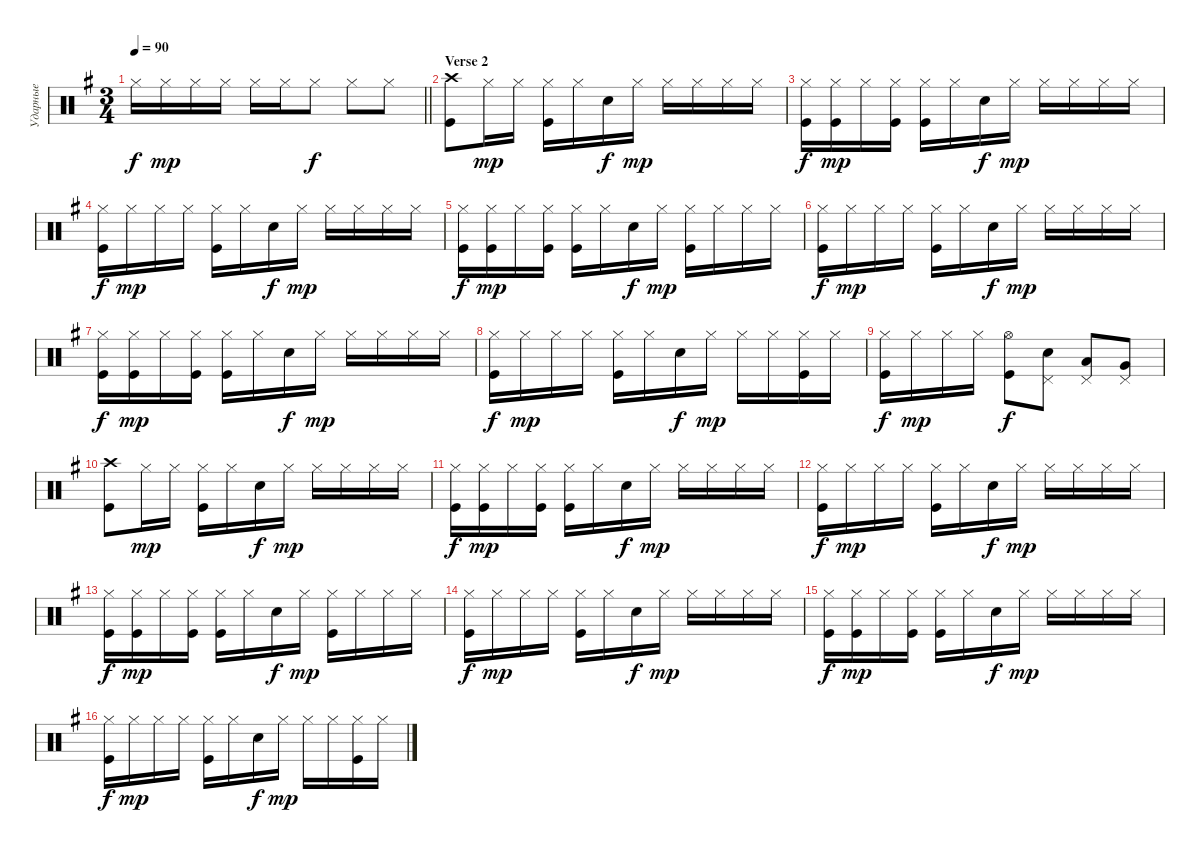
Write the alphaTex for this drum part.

\track ("Ударные" "Ударные") {instrument percussion}
\staff {score}
\articulation defaults
\ts (3 4)
\tempo 90
\clef neutral
\barLineRight lightlight
\ks eminor "Hi-Hat (closed)".16{dy f} "Hi-Hat (closed)".16{dy mp} "Hi-Hat (closed)".16 "Hi-Hat (closed)".16 "Hi-Hat (closed)".16 "Hi-Hat (closed)".16 "Hi-Hat (closed)".8{dy f} "Hi-Hat (closed)".8 "Hi-Hat (closed)".8
|
\section ("" "Verse 2")
("Crash high (hit)" "Kick (hit)").8 "Hi-Hat (closed)".16{dy mp} "Hi-Hat (closed)".16 ("Hi-Hat (closed)" "Kick (hit)").16 "Hi-Hat (closed)".16 "Snare (hit) 2".16{dy f} "Hi-Hat (closed)".16{dy mp} "Hi-Hat (closed)".16 "Hi-Hat (closed)".16 "Hi-Hat (closed)".16 "Hi-Hat (closed)".16 |
("Hi-Hat (closed)" "Kick (hit)").16{dy f} ("Hi-Hat (closed)" "Kick (hit)").16{dy mp} "Hi-Hat (closed)".16 ("Hi-Hat (closed)" "Kick (hit)").16 ("Hi-Hat (closed)" "Kick (hit)").16 "Hi-Hat (closed)".16 "Snare (hit) 2".16{dy f} "Hi-Hat (closed)".16{dy mp} "Hi-Hat (closed)".16 "Hi-Hat (closed)".16 "Hi-Hat (closed)".16 "Hi-Hat (closed)".16 |
("Hi-Hat (closed)" "Kick (hit)").16{dy f} "Hi-Hat (closed)".16{dy mp} "Hi-Hat (closed)".16 "Hi-Hat (closed)".16 ("Hi-Hat (closed)" "Kick (hit)").16 "Hi-Hat (closed)".16 "Snare (hit) 2".16{dy f} "Hi-Hat (closed)".16{dy mp} "Hi-Hat (closed)".16 "Hi-Hat (closed)".16 "Hi-Hat (closed)".16 "Hi-Hat (closed)".16 |
("Hi-Hat (closed)" "Kick (hit)").16{dy f} ("Hi-Hat (closed)" "Kick (hit)").16{dy mp} "Hi-Hat (closed)".16 ("Hi-Hat (closed)" "Kick (hit)").16 ("Hi-Hat (closed)" "Kick (hit)").16 "Hi-Hat (closed)".16 "Snare (hit) 2".16{dy f} "Hi-Hat (closed)".16{dy mp} ("Hi-Hat (closed)" "Kick (hit)").16 "Hi-Hat (closed)".16 "Hi-Hat (closed)".16 "Hi-Hat (closed)".16 |
("Hi-Hat (closed)" "Kick (hit)").16{dy f} "Hi-Hat (closed)".16{dy mp} "Hi-Hat (closed)".16 "Hi-Hat (closed)".16 ("Hi-Hat (closed)" "Kick (hit)").16 "Hi-Hat (closed)".16 "Snare (hit) 2".16{dy f} "Hi-Hat (closed)".16{dy mp} "Hi-Hat (closed)".16 "Hi-Hat (closed)".16 "Hi-Hat (closed)".16 "Hi-Hat (closed)".16 |
("Hi-Hat (closed)" "Kick (hit)").16{dy f} ("Hi-Hat (closed)" "Kick (hit)").16{dy mp} "Hi-Hat (closed)".16 ("Hi-Hat (closed)" "Kick (hit)").16 ("Hi-Hat (closed)" "Kick (hit)").16 "Hi-Hat (closed)".16 "Snare (hit) 2".16{dy f} "Hi-Hat (closed)".16{dy mp} "Hi-Hat (closed)".16 "Hi-Hat (closed)".16 "Hi-Hat (closed)".16 "Hi-Hat (closed)".16 |
("Hi-Hat (closed)" "Kick (hit)").16{dy f} "Hi-Hat (closed)".16{dy mp} "Hi-Hat (closed)".16 "Hi-Hat (closed)".16 ("Hi-Hat (closed)" "Kick (hit)").16 "Hi-Hat (closed)".16 "Snare (hit) 2".16{dy f} "Hi-Hat (closed)".16{dy mp} "Hi-Hat (closed)".16 "Hi-Hat (closed)".16 ("Hi-Hat (closed)" "Kick (hit)").16 "Hi-Hat (closed)".16 |
("Hi-Hat (closed)" "Kick (hit)").16{dy f} "Hi-Hat (closed)".16{dy mp} "Hi-Hat (closed)".16 "Hi-Hat (closed)".16 ("Hi-Hat (open)" "Kick (hit)").8{dy f} ("Snare (hit) 2" "Pedal Hi-Hat (hit)").8 ("Pedal Hi-Hat (hit)" "Low Tom (hit)").8{bd 60} ("Pedal Hi-Hat (hit)" "Very Low Tom (hit)").8{bd 60} |
("Crash high (hit)" "Kick (hit)").8 "Hi-Hat (closed)".16{dy mp} "Hi-Hat (closed)".16 ("Hi-Hat (closed)" "Kick (hit)").16 "Hi-Hat (closed)".16 "Snare (hit) 2".16{dy f} "Hi-Hat (closed)".16{dy mp} "Hi-Hat (closed)".16 "Hi-Hat (closed)".16 "Hi-Hat (closed)".16 "Hi-Hat (closed)".16 |
("Hi-Hat (closed)" "Kick (hit)").16{dy f} ("Hi-Hat (closed)" "Kick (hit)").16{dy mp} "Hi-Hat (closed)".16 ("Hi-Hat (closed)" "Kick (hit)").16 ("Hi-Hat (closed)" "Kick (hit)").16 "Hi-Hat (closed)".16 "Snare (hit) 2".16{dy f} "Hi-Hat (closed)".16{dy mp} "Hi-Hat (closed)".16 "Hi-Hat (closed)".16 "Hi-Hat (closed)".16 "Hi-Hat (closed)".16 |
("Hi-Hat (closed)" "Kick (hit)").16{dy f} "Hi-Hat (closed)".16{dy mp} "Hi-Hat (closed)".16 "Hi-Hat (closed)".16 ("Hi-Hat (closed)" "Kick (hit)").16 "Hi-Hat (closed)".16 "Snare (hit) 2".16{dy f} "Hi-Hat (closed)".16{dy mp} "Hi-Hat (closed)".16 "Hi-Hat (closed)".16 "Hi-Hat (closed)".16 "Hi-Hat (closed)".16 |
("Hi-Hat (closed)" "Kick (hit)").16{dy f} ("Hi-Hat (closed)" "Kick (hit)").16{dy mp} "Hi-Hat (closed)".16 ("Hi-Hat (closed)" "Kick (hit)").16 ("Hi-Hat (closed)" "Kick (hit)").16 "Hi-Hat (closed)".16 "Snare (hit) 2".16{dy f} "Hi-Hat (closed)".16{dy mp} ("Hi-Hat (closed)" "Kick (hit)").16 "Hi-Hat (closed)".16 "Hi-Hat (closed)".16 "Hi-Hat (closed)".16 |
("Hi-Hat (closed)" "Kick (hit)").16{dy f} "Hi-Hat (closed)".16{dy mp} "Hi-Hat (closed)".16 "Hi-Hat (closed)".16 ("Hi-Hat (closed)" "Kick (hit)").16 "Hi-Hat (closed)".16 "Snare (hit) 2".16{dy f} "Hi-Hat (closed)".16{dy mp} "Hi-Hat (closed)".16 "Hi-Hat (closed)".16 "Hi-Hat (closed)".16 "Hi-Hat (closed)".16 |
("Hi-Hat (closed)" "Kick (hit)").16{dy f} ("Hi-Hat (closed)" "Kick (hit)").16{dy mp} "Hi-Hat (closed)".16 ("Hi-Hat (closed)" "Kick (hit)").16 ("Hi-Hat (closed)" "Kick (hit)").16 "Hi-Hat (closed)".16 "Snare (hit) 2".16{dy f} "Hi-Hat (closed)".16{dy mp} "Hi-Hat (closed)".16 "Hi-Hat (closed)".16 "Hi-Hat (closed)".16 "Hi-Hat (closed)".16 |
("Hi-Hat (closed)" "Kick (hit)").16{dy f} "Hi-Hat (closed)".16{dy mp} "Hi-Hat (closed)".16 "Hi-Hat (closed)".16 ("Hi-Hat (closed)" "Kick (hit)").16 "Hi-Hat (closed)".16 "Snare (hit) 2".16{dy f} "Hi-Hat (closed)".16{dy mp} "Hi-Hat (closed)".16 "Hi-Hat (closed)".16 ("Hi-Hat (closed)" "Kick (hit)").16 "Hi-Hat (closed)".16
